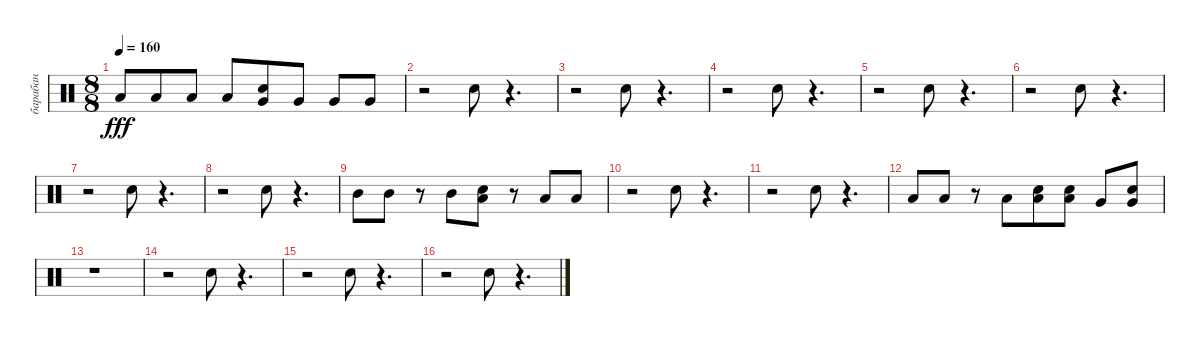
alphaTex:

\track ("барабан" "барабан") {instrument percussion}
\staff {score}
\articulation defaults
\ts (8 8)
\tempo 160
\clef neutral
\ks c "Low Tom (hit)".8{dy fff} "Low Tom (hit)".8 "Low Tom (hit)".8 "Low Tom (hit)".8
("Snare (hit) 2" "Very Low Tom (hit)").8 "Very Low Tom (hit)".8 "Very Low Tom (hit)".8 "Very Low Tom (hit)".8 |
r.2 "Snare (hit) 2".8 r.4{d} |
r.2 "Snare (hit) 2".8 r.4{d} |
r.2 "Snare (hit) 2".8 r.4{d} |
r.2 "Snare (hit) 2".8 r.4{d} |
r.2 "Snare (hit) 2".8 r.4{d} |
r.2 "Snare (hit) 2".8 r.4{d} |
r.2 "Snare (hit) 2".8 r.4{d} |
"Mid Tom (hit)".8 "Mid Tom (hit)".8 r.8 "Mid Tom (hit)".8 ("Snare (hit) 2" "Low Tom (hit)").8 r.8 "Low Tom (hit)".8 "Low Tom (hit)".8 |
r.2 "Snare (hit) 2".8 r.4{d} |
r.2 "Snare (hit) 2".8 r.4{d} |
"Low Tom (hit)".8 "Low Tom (hit)".8 r.8 "Low Tom (hit)".8 ("Snare (hit) 2" "Low Tom (hit)").8 ("Snare (hit) 2" "Low Tom (hit)").8 "Very Low Tom (hit)".8 ("Snare (hit) 2" "Very Low Tom (hit)").8 |
r.1 |
r.2 "Snare (hit) 2".8 r.4{d} |
r.2 "Snare (hit) 2".8 r.4{d} |
r.2 "Snare (hit) 2".8 r.4{d}
